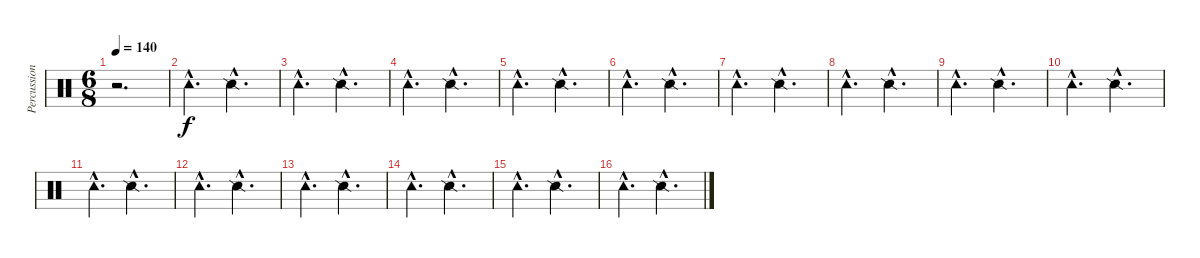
\track ("Percussion" "Percussion") {instrument percussion}
\staff {score}
\articulation defaults
\ts (6 8)
\tempo 140
\clef neutral
\ks c
r.2{d dy f} |
"Tambourine (hit)"{hac}.4{d} "Snare (side stick) 2"{hac}.4{d} |
"Tambourine (hit)"{hac}.4{d} "Snare (side stick) 2"{hac}.4{d} |
"Tambourine (hit)"{hac}.4{d} "Snare (side stick) 2"{hac}.4{d} |
"Tambourine (hit)"{hac}.4{d} "Snare (side stick) 2"{hac}.4{d} |
"Tambourine (hit)"{hac}.4{d} "Snare (side stick) 2"{hac}.4{d} |
"Tambourine (hit)"{hac}.4{d} "Snare (side stick) 2"{hac}.4{d} |
"Tambourine (hit)"{hac}.4{d} "Snare (side stick) 2"{hac}.4{d} |
"Tambourine (hit)"{hac}.4{d} "Snare (side stick) 2"{hac}.4{d} |
"Tambourine (hit)"{hac}.4{d} "Snare (side stick) 2"{hac}.4{d} |
"Tambourine (hit)"{hac}.4{d} "Snare (side stick) 2"{hac}.4{d} |
"Tambourine (hit)"{hac}.4{d} "Snare (side stick) 2"{hac}.4{d} |
"Tambourine (hit)"{hac}.4{d} "Snare (side stick) 2"{hac}.4{d} |
"Tambourine (hit)"{hac}.4{d} "Snare (side stick) 2"{hac}.4{d} |
"Tambourine (hit)"{hac}.4{d} "Snare (side stick) 2"{hac}.4{d} |
"Tambourine (hit)"{hac}.4{d} "Snare (side stick) 2"{hac}.4{d}
